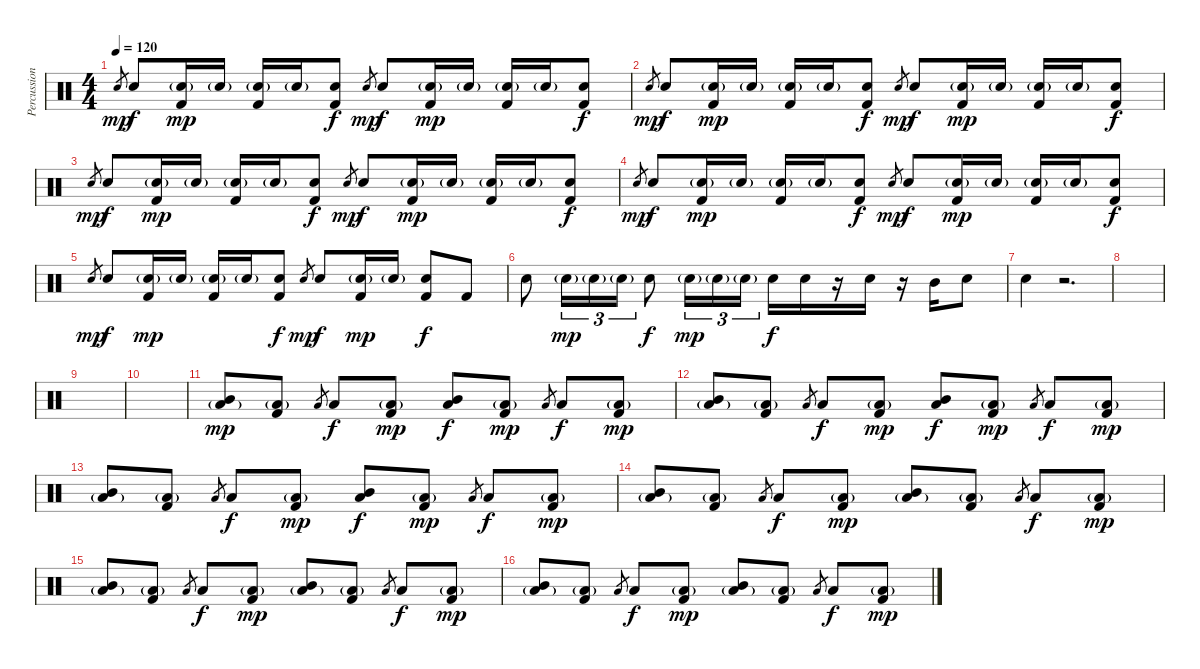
\track ("Percussion" "Percussion") {instrument percussion}
\staff {score}
\articulation defaults
\ts (4 4)
\tempo 120
\clef neutral
\ks c "Snare (hit) 2".8{gr dy mp} "Snare (hit) 2".8{dy f}
("Snare (hit) 2"{g} "Kick (hit) 2").16{dy mp} "Snare (hit) 2"{g}.16 ("Snare (hit) 2"{g} "Kick (hit) 2").16 "Snare (hit) 2"{g}.16 ("Snare (hit) 2" "Kick (hit) 2").8{dy f} "Snare (hit) 2".8{gr dy mp} "Snare (hit) 2".8{dy f} ("Snare (hit) 2"{g} "Kick (hit) 2").16{dy mp} "Snare (hit) 2"{g}.16 ("Snare (hit) 2"{g} "Kick (hit) 2").16 "Snare (hit) 2"{g}.16 ("Snare (hit) 2" "Kick (hit) 2").8{dy f} |
"Snare (hit) 2".8{gr dy mp} "Snare (hit) 2".8{dy f} ("Snare (hit) 2"{g} "Kick (hit) 2").16{dy mp} "Snare (hit) 2"{g}.16 ("Snare (hit) 2"{g} "Kick (hit) 2").16 "Snare (hit) 2"{g}.16 ("Snare (hit) 2" "Kick (hit) 2").8{dy f} "Snare (hit) 2".8{gr dy mp} "Snare (hit) 2".8{dy f} ("Snare (hit) 2"{g} "Kick (hit) 2").16{dy mp} "Snare (hit) 2"{g}.16 ("Snare (hit) 2"{g} "Kick (hit) 2").16 "Snare (hit) 2"{g}.16 ("Snare (hit) 2" "Kick (hit) 2").8{dy f} |
"Snare (hit) 2".8{gr dy mp} "Snare (hit) 2".8{dy f} ("Snare (hit) 2"{g} "Kick (hit) 2").16{dy mp} "Snare (hit) 2"{g}.16 ("Snare (hit) 2"{g} "Kick (hit) 2").16 "Snare (hit) 2"{g}.16 ("Snare (hit) 2" "Kick (hit) 2").8{dy f} "Snare (hit) 2".8{gr dy mp} "Snare (hit) 2".8{dy f} ("Snare (hit) 2"{g} "Kick (hit) 2").16{dy mp} "Snare (hit) 2"{g}.16 ("Snare (hit) 2"{g} "Kick (hit) 2").16 "Snare (hit) 2"{g}.16 ("Snare (hit) 2" "Kick (hit) 2").8{dy f} |
"Snare (hit) 2".8{gr dy mp} "Snare (hit) 2".8{dy f} ("Snare (hit) 2"{g} "Kick (hit) 2").16{dy mp} "Snare (hit) 2"{g}.16 ("Snare (hit) 2"{g} "Kick (hit) 2").16 "Snare (hit) 2"{g}.16 ("Snare (hit) 2" "Kick (hit) 2").8{dy f} "Snare (hit) 2".8{gr dy mp} "Snare (hit) 2".8{dy f} ("Snare (hit) 2"{g} "Kick (hit) 2").16{dy mp} "Snare (hit) 2"{g}.16 ("Snare (hit) 2"{g} "Kick (hit) 2").16 "Snare (hit) 2"{g}.16 ("Snare (hit) 2" "Kick (hit) 2").8{dy f} |
"Snare (hit) 2".8{gr dy mp} "Snare (hit) 2".8{dy f} ("Snare (hit) 2"{g} "Kick (hit) 2").16{dy mp} "Snare (hit) 2"{g}.16 ("Snare (hit) 2"{g} "Kick (hit) 2").16 "Snare (hit) 2"{g}.16 ("Snare (hit) 2" "Kick (hit) 2").8{dy f} "Snare (hit) 2".8{gr dy mp} "Snare (hit) 2".8{dy f} ("Snare (hit) 2"{g} "Kick (hit) 2").16{dy mp} "Snare (hit) 2"{g}.16 ("Snare (hit) 2" "Kick (hit) 2").8{dy f} "Kick (hit) 2".8 |
"Snare (hit) 2".8 "Snare (hit) 2"{g}.16{tu (3 2) dy mp} "Snare (hit) 2"{g}.16{tu (3 2)} "Snare (hit) 2"{g}.16{tu (3 2)} "Snare (hit) 2".8{dy f} "Snare (hit) 2"{g}.16{tu (3 2) dy mp} "Snare (hit) 2"{g}.16{tu (3 2)} "Snare (hit) 2"{g}.16{tu (3 2)} "Snare (hit) 2".16{dy f} "Snare (hit) 2".16 r.16 "Snare (hit) 2".16 r.16 "Mid Tom (hit)".16 "Snare (hit) 2".8 |
"Snare (hit) 2".4 r.2{d} |
|
|
|
("Mid Tom (hit)" "Low Floor Tom (hit)"{g}).8{dy mp} ("Low Floor Tom (hit)"{g} "Kick (hit) 2").8 "Low Floor Tom (hit)".8{gr} "Low Floor Tom (hit)".8{dy f} ("Low Floor Tom (hit)"{g} "Kick (hit) 2").8{dy mp} ("Mid Tom (hit)" "Low Floor Tom (hit)").8{dy f} ("Low Floor Tom (hit)"{g} "Kick (hit) 2").8{dy mp} "Low Floor Tom (hit)".8{gr} "Low Floor Tom (hit)".8{dy f} ("Low Floor Tom (hit)"{g} "Kick (hit) 2").8{dy mp} |
("Mid Tom (hit)" "Low Floor Tom (hit)"{g}).8 ("Low Floor Tom (hit)"{g} "Kick (hit) 2").8 "Low Floor Tom (hit)".8{gr} "Low Floor Tom (hit)".8{dy f} ("Low Floor Tom (hit)"{g} "Kick (hit) 2").8{dy mp} ("Mid Tom (hit)" "Low Floor Tom (hit)").8{dy f} ("Low Floor Tom (hit)"{g} "Kick (hit) 2").8{dy mp} "Low Floor Tom (hit)".8{gr} "Low Floor Tom (hit)".8{dy f} ("Low Floor Tom (hit)"{g} "Kick (hit) 2").8{dy mp} |
("Mid Tom (hit)" "Low Floor Tom (hit)"{g}).8 ("Low Floor Tom (hit)"{g} "Kick (hit) 2").8 "Low Floor Tom (hit)".8{gr} "Low Floor Tom (hit)".8{dy f} ("Low Floor Tom (hit)"{g} "Kick (hit) 2").8{dy mp} ("Mid Tom (hit)" "Low Floor Tom (hit)").8{dy f} ("Low Floor Tom (hit)"{g} "Kick (hit) 2").8{dy mp} "Low Floor Tom (hit)".8{gr} "Low Floor Tom (hit)".8{dy f} ("Low Floor Tom (hit)"{g} "Kick (hit) 2").8{dy mp} |
("Mid Tom (hit)" "Low Floor Tom (hit)"{g}).8 ("Low Floor Tom (hit)"{g} "Kick (hit) 2").8 "Low Floor Tom (hit)".8{gr} "Low Floor Tom (hit)".8{dy f} ("Low Floor Tom (hit)"{g} "Kick (hit) 2").8{dy mp} ("Mid Tom (hit)" "Low Floor Tom (hit)"{g}).8 ("Low Floor Tom (hit)"{g} "Kick (hit) 2").8 "Low Floor Tom (hit)".8{gr} "Low Floor Tom (hit)".8{dy f} ("Low Floor Tom (hit)"{g} "Kick (hit) 2").8{dy mp} |
("Mid Tom (hit)" "Low Floor Tom (hit)"{g}).8 ("Low Floor Tom (hit)"{g} "Kick (hit) 2").8 "Low Floor Tom (hit)".8{gr} "Low Floor Tom (hit)".8{dy f} ("Low Floor Tom (hit)"{g} "Kick (hit) 2").8{dy mp} ("Mid Tom (hit)" "Low Floor Tom (hit)"{g}).8 ("Low Floor Tom (hit)"{g} "Kick (hit) 2").8 "Low Floor Tom (hit)".8{gr} "Low Floor Tom (hit)".8{dy f} ("Low Floor Tom (hit)"{g} "Kick (hit) 2").8{dy mp} |
("Mid Tom (hit)" "Low Floor Tom (hit)"{g}).8 ("Low Floor Tom (hit)"{g} "Kick (hit) 2").8 "Low Floor Tom (hit)".8{gr} "Low Floor Tom (hit)".8{dy f} ("Low Floor Tom (hit)"{g} "Kick (hit) 2").8{dy mp} ("Mid Tom (hit)" "Low Floor Tom (hit)"{g}).8 ("Low Floor Tom (hit)"{g} "Kick (hit) 2").8 "Low Floor Tom (hit)".8{gr} "Low Floor Tom (hit)".8{dy f} ("Low Floor Tom (hit)"{g} "Kick (hit) 2").8{dy mp}
